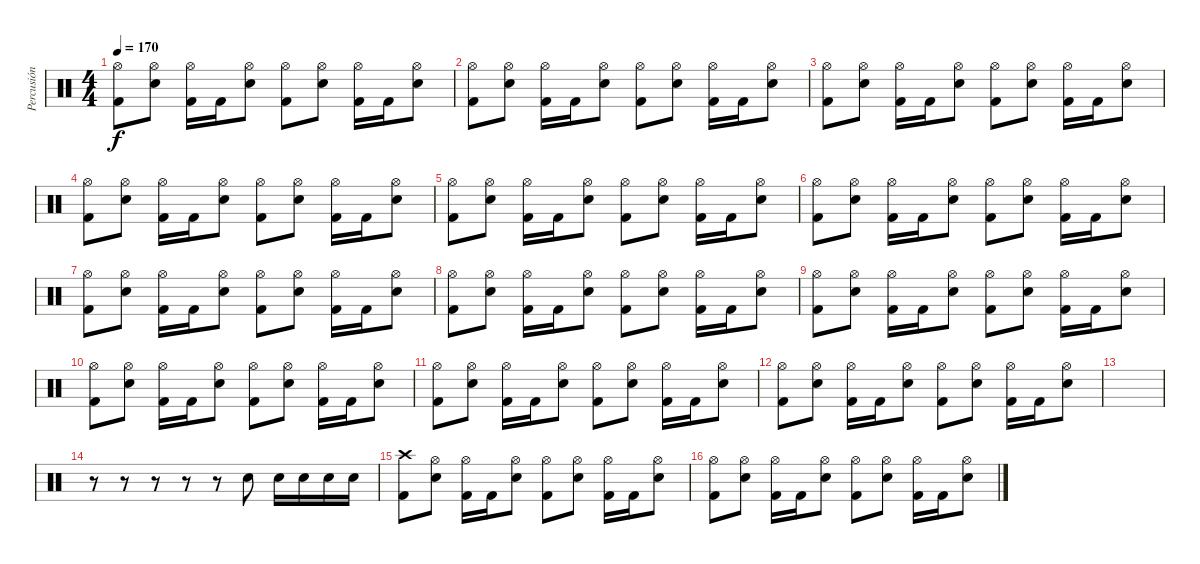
\track ("Percusión" "Percusión") {instrument percussion}
\staff {score}
\articulation defaults
\ts (4 4)
\tempo 170
\clef neutral
\ks c
("Kick (hit) 2" "Hi-Hat (open)").8{dy f} ("Snare (hit) 2" "Hi-Hat (open)").8 ("Kick (hit) 2" "Hi-Hat (open)").16 "Kick (hit) 2".16 ("Snare (hit) 2" "Hi-Hat (open)").8 ("Kick (hit) 2" "Hi-Hat (open)").8 ("Snare (hit) 2" "Hi-Hat (open)").8 ("Kick (hit) 2" "Hi-Hat (open)").16 "Kick (hit) 2".16 ("Snare (hit) 2" "Hi-Hat (open)").8 |
("Kick (hit) 2" "Hi-Hat (open)").8 ("Snare (hit) 2" "Hi-Hat (open)").8 ("Kick (hit) 2" "Hi-Hat (open)").16 "Kick (hit) 2".16 ("Snare (hit) 2" "Hi-Hat (open)").8 ("Kick (hit) 2" "Hi-Hat (open)").8 ("Snare (hit) 2" "Hi-Hat (open)").8 ("Kick (hit) 2" "Hi-Hat (open)").16 "Kick (hit) 2".16 ("Snare (hit) 2" "Hi-Hat (open)").8 |
("Kick (hit) 2" "Hi-Hat (open)").8 ("Snare (hit) 2" "Hi-Hat (open)").8 ("Kick (hit) 2" "Hi-Hat (open)").16 "Kick (hit) 2".16 ("Snare (hit) 2" "Hi-Hat (open)").8 ("Kick (hit) 2" "Hi-Hat (open)").8 ("Snare (hit) 2" "Hi-Hat (open)").8 ("Kick (hit) 2" "Hi-Hat (open)").16 "Kick (hit) 2".16 ("Snare (hit) 2" "Hi-Hat (open)").8 |
("Kick (hit) 2" "Hi-Hat (open)").8 ("Snare (hit) 2" "Hi-Hat (open)").8 ("Kick (hit) 2" "Hi-Hat (open)").16 "Kick (hit) 2".16 ("Snare (hit) 2" "Hi-Hat (open)").8 ("Kick (hit) 2" "Hi-Hat (open)").8 ("Snare (hit) 2" "Hi-Hat (open)").8 ("Kick (hit) 2" "Hi-Hat (open)").16 "Kick (hit) 2".16 ("Snare (hit) 2" "Hi-Hat (open)").8 |
("Kick (hit) 2" "Hi-Hat (open)").8 ("Snare (hit) 2" "Hi-Hat (open)").8 ("Kick (hit) 2" "Hi-Hat (open)").16 "Kick (hit) 2".16 ("Snare (hit) 2" "Hi-Hat (open)").8 ("Kick (hit) 2" "Hi-Hat (open)").8 ("Snare (hit) 2" "Hi-Hat (open)").8 ("Kick (hit) 2" "Hi-Hat (open)").16 "Kick (hit) 2".16 ("Snare (hit) 2" "Hi-Hat (open)").8 |
("Kick (hit) 2" "Hi-Hat (open)").8 ("Snare (hit) 2" "Hi-Hat (open)").8 ("Kick (hit) 2" "Hi-Hat (open)").16 "Kick (hit) 2".16 ("Snare (hit) 2" "Hi-Hat (open)").8 ("Kick (hit) 2" "Hi-Hat (open)").8 ("Snare (hit) 2" "Hi-Hat (open)").8 ("Kick (hit) 2" "Hi-Hat (open)").16 "Kick (hit) 2".16 ("Snare (hit) 2" "Hi-Hat (open)").8 |
("Kick (hit) 2" "Hi-Hat (open)").8 ("Snare (hit) 2" "Hi-Hat (open)").8 ("Kick (hit) 2" "Hi-Hat (open)").16 "Kick (hit) 2".16 ("Snare (hit) 2" "Hi-Hat (open)").8 ("Kick (hit) 2" "Hi-Hat (open)").8 ("Snare (hit) 2" "Hi-Hat (open)").8 ("Kick (hit) 2" "Hi-Hat (open)").16 "Kick (hit) 2".16 ("Snare (hit) 2" "Hi-Hat (open)").8 |
("Kick (hit) 2" "Hi-Hat (open)").8 ("Snare (hit) 2" "Hi-Hat (open)").8 ("Kick (hit) 2" "Hi-Hat (open)").16 "Kick (hit) 2".16 ("Snare (hit) 2" "Hi-Hat (open)").8 ("Kick (hit) 2" "Hi-Hat (open)").8 ("Snare (hit) 2" "Hi-Hat (open)").8 ("Kick (hit) 2" "Hi-Hat (open)").16 "Kick (hit) 2".16 ("Snare (hit) 2" "Hi-Hat (open)").8 |
("Kick (hit) 2" "Hi-Hat (open)").8 ("Snare (hit) 2" "Hi-Hat (open)").8 ("Kick (hit) 2" "Hi-Hat (open)").16 "Kick (hit) 2".16 ("Snare (hit) 2" "Hi-Hat (open)").8 ("Kick (hit) 2" "Hi-Hat (open)").8 ("Snare (hit) 2" "Hi-Hat (open)").8 ("Kick (hit) 2" "Hi-Hat (open)").16 "Kick (hit) 2".16 ("Snare (hit) 2" "Hi-Hat (open)").8 |
("Kick (hit) 2" "Hi-Hat (open)").8 ("Snare (hit) 2" "Hi-Hat (open)").8 ("Kick (hit) 2" "Hi-Hat (open)").16 "Kick (hit) 2".16 ("Snare (hit) 2" "Hi-Hat (open)").8 ("Kick (hit) 2" "Hi-Hat (open)").8 ("Snare (hit) 2" "Hi-Hat (open)").8 ("Kick (hit) 2" "Hi-Hat (open)").16 "Kick (hit) 2".16 ("Snare (hit) 2" "Hi-Hat (open)").8 |
("Kick (hit) 2" "Hi-Hat (open)").8 ("Snare (hit) 2" "Hi-Hat (open)").8 ("Kick (hit) 2" "Hi-Hat (open)").16 "Kick (hit) 2".16 ("Snare (hit) 2" "Hi-Hat (open)").8 ("Kick (hit) 2" "Hi-Hat (open)").8 ("Snare (hit) 2" "Hi-Hat (open)").8 ("Kick (hit) 2" "Hi-Hat (open)").16 "Kick (hit) 2".16 ("Snare (hit) 2" "Hi-Hat (open)").8 |
("Kick (hit) 2" "Hi-Hat (open)").8 ("Snare (hit) 2" "Hi-Hat (open)").8 ("Kick (hit) 2" "Hi-Hat (open)").16 "Kick (hit) 2".16 ("Snare (hit) 2" "Hi-Hat (open)").8 ("Kick (hit) 2" "Hi-Hat (open)").8 ("Snare (hit) 2" "Hi-Hat (open)").8 ("Kick (hit) 2" "Hi-Hat (open)").16 "Kick (hit) 2".16 ("Snare (hit) 2" "Hi-Hat (open)").8 |
|
r.8 r.8 r.8 r.8 r.8 "Snare (hit) 2".8 "Snare (hit) 2".16 "Snare (hit) 2".16 "Snare (hit) 2".16 "Snare (hit) 2".16 |
("Kick (hit) 2" "Crash high (hit)").8 ("Snare (hit) 2" "Hi-Hat (open)").8 ("Kick (hit) 2" "Hi-Hat (open)").16 "Kick (hit) 2".16 ("Snare (hit) 2" "Hi-Hat (open)").8 ("Kick (hit) 2" "Hi-Hat (open)").8 ("Snare (hit) 2" "Hi-Hat (open)").8 ("Kick (hit) 2" "Hi-Hat (open)").16 "Kick (hit) 2".16 ("Snare (hit) 2" "Hi-Hat (open)").8 |
("Kick (hit) 2" "Hi-Hat (open)").8 ("Snare (hit) 2" "Hi-Hat (open)").8 ("Kick (hit) 2" "Hi-Hat (open)").16 "Kick (hit) 2".16 ("Snare (hit) 2" "Hi-Hat (open)").8 ("Kick (hit) 2" "Hi-Hat (open)").8 ("Snare (hit) 2" "Hi-Hat (open)").8 ("Kick (hit) 2" "Hi-Hat (open)").16 "Kick (hit) 2".16 ("Snare (hit) 2" "Hi-Hat (open)").8
